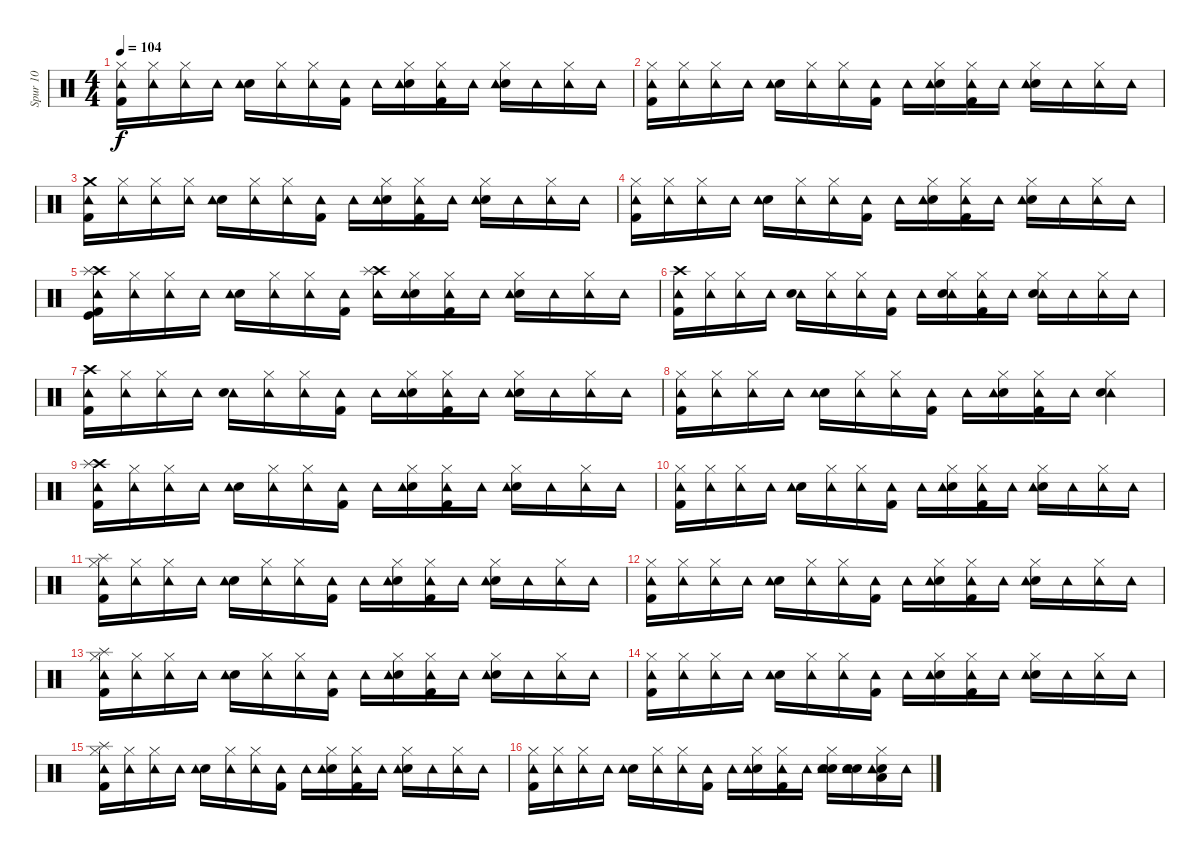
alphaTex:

\track ("Spur 10" "Spur 10") {instrument percussion}
\staff {score}
\articulation defaults
\ts (4 4)
\tempo 104
\clef neutral
\ks c
("Hi-Hat (closed)" "Kick (hit) 2" "Tambourine (hit)").16{dy f} ("Hi-Hat (closed)" "Tambourine (hit)").16 ("Hi-Hat (closed)" "Tambourine (hit)").16 "Tambourine (hit)".16 ("Electric Snare (hit)" "Tambourine (hit)").16 ("Hi-Hat (closed)" "Tambourine (hit)").16 ("Hi-Hat (closed)" "Tambourine (hit)").16 ("Kick (hit) 2" "Tambourine (hit)").16 "Tambourine (hit)".16 ("Hi-Hat (closed)" "Electric Snare (hit)" "Tambourine (hit)").16 ("Hi-Hat (closed)" "Kick (hit) 2" "Tambourine (hit)").16 "Tambourine (hit)".16 ("Hi-Hat (closed)" "Electric Snare (hit)" "Tambourine (hit)").16 "Tambourine (hit)".16 ("Hi-Hat (closed)" "Tambourine (hit)").16 "Tambourine (hit)".16 |
("Hi-Hat (closed)" "Kick (hit) 2" "Tambourine (hit)").16 ("Hi-Hat (closed)" "Tambourine (hit)").16 ("Hi-Hat (closed)" "Tambourine (hit)").16 "Tambourine (hit)".16 ("Electric Snare (hit)" "Tambourine (hit)").16 ("Hi-Hat (closed)" "Tambourine (hit)").16 ("Hi-Hat (closed)" "Tambourine (hit)").16 ("Kick (hit) 2" "Tambourine (hit)").16 "Tambourine (hit)".16 ("Hi-Hat (closed)" "Electric Snare (hit)" "Tambourine (hit)").16 ("Hi-Hat (closed)" "Kick (hit) 2" "Tambourine (hit)").16 "Tambourine (hit)".16 ("Electric Snare (hit)" "Hi-Hat (closed)" "Tambourine (hit)").16 "Tambourine (hit)".16 ("Hi-Hat (closed)" "Tambourine (hit)").16 "Tambourine (hit)".16 |
("Kick (hit) 2" "Tambourine (hit)" "Crash medium (hit)").16 ("Hi-Hat (closed)" "Tambourine (hit)").16 ("Hi-Hat (closed)" "Tambourine (hit)").16 ("Hi-Hat (closed)" "Tambourine (hit)").16 ("Electric Snare (hit)" "Tambourine (hit)").16 ("Hi-Hat (closed)" "Tambourine (hit)").16 ("Hi-Hat (closed)" "Tambourine (hit)").16 ("Kick (hit) 2" "Tambourine (hit)").16 "Tambourine (hit)".16 ("Hi-Hat (closed)" "Electric Snare (hit)" "Tambourine (hit)").16 ("Hi-Hat (closed)" "Kick (hit) 2" "Tambourine (hit)").16 "Tambourine (hit)".16 ("Hi-Hat (closed)" "Electric Snare (hit)" "Tambourine (hit)").16 "Tambourine (hit)".16 ("Hi-Hat (closed)" "Tambourine (hit)").16 "Tambourine (hit)".16 |
("Hi-Hat (closed)" "Tambourine (hit)" "Kick (hit) 2").16 ("Hi-Hat (closed)" "Tambourine (hit)").16 ("Hi-Hat (closed)" "Tambourine (hit)").16 "Tambourine (hit)".16 ("Electric Snare (hit)" "Tambourine (hit)").16 ("Hi-Hat (closed)" "Tambourine (hit)").16 ("Hi-Hat (closed)" "Tambourine (hit)").16 ("Kick (hit) 2" "Tambourine (hit)").16 "Tambourine (hit)".16 ("Hi-Hat (closed)" "Electric Snare (hit)" "Tambourine (hit)").16 ("Kick (hit) 2" "Hi-Hat (closed)" "Tambourine (hit)").16 "Tambourine (hit)".16 ("Hi-Hat (closed)" "Electric Snare (hit)" "Tambourine (hit)").16 "Tambourine (hit)".16 ("Hi-Hat (closed)" "Tambourine (hit)").16 "Tambourine (hit)".16 |
("Kick (hit)" "Crash high (hit)" "Tambourine (hit)" "Kick (hit) 2" "Splash (hit)").16 ("Hi-Hat (closed)" "Tambourine (hit)").16 ("Hi-Hat (closed)" "Tambourine (hit)").16 "Tambourine (hit)".16 ("Electric Snare (hit)" "Tambourine (hit)").16 ("Hi-Hat (closed)" "Tambourine (hit)").16 ("Hi-Hat (closed)" "Tambourine (hit)").16 ("Kick (hit) 2" "Tambourine (hit)").16 ("Crash high (hit)" "Tambourine (hit)" "Splash (hit)").16 ("Hi-Hat (closed)" "Electric Snare (hit)" "Tambourine (hit)").16 ("Hi-Hat (closed)" "Kick (hit) 2" "Tambourine (hit)").16 "Tambourine (hit)".16 ("Hi-Hat (closed)" "Electric Snare (hit)" "Tambourine (hit)").16 "Tambourine (hit)".16 ("Hi-Hat (closed)" "Tambourine (hit)").16 "Tambourine (hit)".16 |
("Tambourine (hit)" "Kick (hit) 2" "Crash high (hit)").16 ("Hi-Hat (closed)" "Tambourine (hit)").16 ("Hi-Hat (closed)" "Tambourine (hit)").16 "Tambourine (hit)".16 ("Tambourine (hit)" "Electric Snare (hit)").16 ("Hi-Hat (closed)" "Tambourine (hit)").16 ("Hi-Hat (closed)" "Tambourine (hit)").16 ("Tambourine (hit)" "Kick (hit) 2").16 "Tambourine (hit)".16 ("Hi-Hat (closed)" "Tambourine (hit)" "Electric Snare (hit)").16 ("Hi-Hat (closed)" "Tambourine (hit)" "Kick (hit) 2").16 "Tambourine (hit)".16 ("Hi-Hat (closed)" "Tambourine (hit)" "Electric Snare (hit)").16 "Tambourine (hit)".16 ("Hi-Hat (closed)" "Tambourine (hit)").16 "Tambourine (hit)".16 |
("Tambourine (hit)" "Kick (hit) 2" "Crash high (hit)").16 ("Hi-Hat (closed)" "Tambourine (hit)").16 ("Hi-Hat (closed)" "Tambourine (hit)").16 "Tambourine (hit)".16 ("Tambourine (hit)" "Electric Snare (hit)").16 ("Hi-Hat (closed)" "Tambourine (hit)").16 ("Hi-Hat (closed)" "Tambourine (hit)").16 ("Kick (hit) 2" "Tambourine (hit)").16 "Tambourine (hit)".16 ("Hi-Hat (closed)" "Electric Snare (hit)" "Tambourine (hit)").16 ("Kick (hit) 2" "Hi-Hat (closed)" "Tambourine (hit)").16 "Tambourine (hit)".16 ("Electric Snare (hit)" "Hi-Hat (closed)" "Tambourine (hit)").16 "Tambourine (hit)".16 ("Hi-Hat (closed)" "Tambourine (hit)").16 "Tambourine (hit)".16 |
("Hi-Hat (closed)" "Kick (hit) 2" "Tambourine (hit)").16 ("Hi-Hat (closed)" "Tambourine (hit)").16 ("Hi-Hat (closed)" "Tambourine (hit)").16 "Tambourine (hit)".16 ("Electric Snare (hit)" "Tambourine (hit)").16 ("Hi-Hat (closed)" "Tambourine (hit)").16 ("Hi-Hat (closed)" "Tambourine (hit)").16 ("Kick (hit) 2" "Tambourine (hit)").16 "Tambourine (hit)".16 ("Hi-Hat (closed)" "Electric Snare (hit)" "Tambourine (hit)").16 ("Hi-Hat (closed)" "Kick (hit) 2" "Tambourine (hit)").16 "Tambourine (hit)".16 ("Hi-Hat (closed)" "Tambourine (hit)" "Electric Snare (hit)").4 |
("Kick (hit) 2" "Tambourine (hit)" "Crash high (hit)" "Splash (hit)").16 ("Hi-Hat (closed)" "Tambourine (hit)").16 ("Hi-Hat (closed)" "Tambourine (hit)").16 "Tambourine (hit)".16 ("Electric Snare (hit)" "Tambourine (hit)").16 ("Hi-Hat (closed)" "Tambourine (hit)").16 ("Hi-Hat (closed)" "Tambourine (hit)").16 ("Kick (hit) 2" "Tambourine (hit)").16 "Tambourine (hit)".16 ("Hi-Hat (closed)" "Electric Snare (hit)" "Tambourine (hit)").16 ("Hi-Hat (closed)" "Kick (hit) 2" "Tambourine (hit)").16 "Tambourine (hit)".16 ("Hi-Hat (closed)" "Electric Snare (hit)" "Tambourine (hit)").16 "Tambourine (hit)".16 ("Hi-Hat (closed)" "Tambourine (hit)").16 "Tambourine (hit)".16 |
("Hi-Hat (closed)" "Tambourine (hit)" "Kick (hit) 2").16 ("Hi-Hat (closed)" "Tambourine (hit)").16 ("Hi-Hat (closed)" "Tambourine (hit)").16 "Tambourine (hit)".16 ("Electric Snare (hit)" "Tambourine (hit)").16 ("Hi-Hat (closed)" "Tambourine (hit)").16 ("Hi-Hat (closed)" "Tambourine (hit)").16 ("Kick (hit) 2" "Tambourine (hit)").16 "Tambourine (hit)".16 ("Hi-Hat (closed)" "Electric Snare (hit)" "Tambourine (hit)").16 ("Hi-Hat (closed)" "Kick (hit) 2" "Tambourine (hit)").16 "Tambourine (hit)".16 ("Hi-Hat (closed)" "Electric Snare (hit)" "Tambourine (hit)").16 "Tambourine (hit)".16 ("Hi-Hat (closed)" "Tambourine (hit)").16 "Tambourine (hit)".16 |
("Splash (hit)" "Hi-Hat (closed)" "Tambourine (hit)" "Kick (hit) 2").16 ("Hi-Hat (closed)" "Tambourine (hit)").16 ("Hi-Hat (closed)" "Tambourine (hit)").16 "Tambourine (hit)".16 ("Electric Snare (hit)" "Tambourine (hit)").16 ("Hi-Hat (closed)" "Tambourine (hit)").16 ("Hi-Hat (closed)" "Tambourine (hit)").16 ("Kick (hit) 2" "Tambourine (hit)").16 "Tambourine (hit)".16 ("Hi-Hat (closed)" "Electric Snare (hit)" "Tambourine (hit)").16 ("Kick (hit) 2" "Hi-Hat (closed)" "Tambourine (hit)").16 "Tambourine (hit)".16 ("Hi-Hat (closed)" "Electric Snare (hit)" "Tambourine (hit)").16 "Tambourine (hit)".16 ("Hi-Hat (closed)" "Tambourine (hit)").16 "Tambourine (hit)".16 |
("Hi-Hat (closed)" "Tambourine (hit)" "Kick (hit) 2").16 ("Hi-Hat (closed)" "Tambourine (hit)").16 ("Hi-Hat (closed)" "Tambourine (hit)").16 "Tambourine (hit)".16 ("Electric Snare (hit)" "Tambourine (hit)").16 ("Hi-Hat (closed)" "Tambourine (hit)").16 ("Hi-Hat (closed)" "Tambourine (hit)").16 ("Kick (hit) 2" "Tambourine (hit)").16 "Tambourine (hit)".16 ("Hi-Hat (closed)" "Electric Snare (hit)" "Tambourine (hit)").16 ("Kick (hit) 2" "Hi-Hat (closed)" "Tambourine (hit)").16 "Tambourine (hit)".16 ("Electric Snare (hit)" "Hi-Hat (closed)" "Tambourine (hit)").16 "Tambourine (hit)".16 ("Hi-Hat (closed)" "Tambourine (hit)").16 "Tambourine (hit)".16 |
("Splash (hit)" "Kick (hit) 2" "Hi-Hat (closed)" "Tambourine (hit)").16 ("Hi-Hat (closed)" "Tambourine (hit)").16 ("Hi-Hat (closed)" "Tambourine (hit)").16 "Tambourine (hit)".16 ("Electric Snare (hit)" "Tambourine (hit)").16 ("Hi-Hat (closed)" "Tambourine (hit)").16 ("Hi-Hat (closed)" "Tambourine (hit)").16 ("Kick (hit) 2" "Tambourine (hit)").16 "Tambourine (hit)".16 ("Hi-Hat (closed)" "Electric Snare (hit)" "Tambourine (hit)").16 ("Hi-Hat (closed)" "Kick (hit) 2" "Tambourine (hit)").16 "Tambourine (hit)".16 ("Electric Snare (hit)" "Hi-Hat (closed)" "Tambourine (hit)").16 "Tambourine (hit)".16 ("Hi-Hat (closed)" "Tambourine (hit)").16 "Tambourine (hit)".16 |
("Hi-Hat (closed)" "Kick (hit) 2" "Tambourine (hit)").16 ("Hi-Hat (closed)" "Tambourine (hit)").16 ("Hi-Hat (closed)" "Tambourine (hit)").16 "Tambourine (hit)".16 ("Electric Snare (hit)" "Tambourine (hit)").16 ("Hi-Hat (closed)" "Tambourine (hit)").16 ("Hi-Hat (closed)" "Tambourine (hit)").16 ("Kick (hit) 2" "Tambourine (hit)").16 "Tambourine (hit)".16 ("Hi-Hat (closed)" "Electric Snare (hit)" "Tambourine (hit)").16 ("Hi-Hat (closed)" "Kick (hit) 2" "Tambourine (hit)").16 "Tambourine (hit)".16 ("Hi-Hat (closed)" "Electric Snare (hit)" "Tambourine (hit)").16 "Tambourine (hit)".16 ("Hi-Hat (closed)" "Tambourine (hit)").16 "Tambourine (hit)".16 |
("Splash (hit)" "Hi-Hat (closed)" "Kick (hit) 2" "Tambourine (hit)").16 ("Hi-Hat (closed)" "Tambourine (hit)").16 ("Hi-Hat (closed)" "Tambourine (hit)").16 "Tambourine (hit)".16 ("Electric Snare (hit)" "Tambourine (hit)").16 ("Hi-Hat (closed)" "Tambourine (hit)").16 ("Hi-Hat (closed)" "Tambourine (hit)").16 ("Kick (hit) 2" "Tambourine (hit)").16 "Tambourine (hit)".16 ("Hi-Hat (closed)" "Electric Snare (hit)" "Tambourine (hit)").16 ("Hi-Hat (closed)" "Kick (hit) 2" "Tambourine (hit)").16 "Tambourine (hit)".16 ("Hi-Hat (closed)" "Electric Snare (hit)" "Tambourine (hit)").16 "Tambourine (hit)".16 ("Hi-Hat (closed)" "Tambourine (hit)").16 "Tambourine (hit)".16 |
("Hi-Hat (closed)" "Kick (hit) 2" "Tambourine (hit)").16 ("Hi-Hat (closed)" "Tambourine (hit)").16 ("Hi-Hat (closed)" "Tambourine (hit)").16 "Tambourine (hit)".16 ("Electric Snare (hit)" "Tambourine (hit)").16 ("Hi-Hat (closed)" "Tambourine (hit)").16 ("Hi-Hat (closed)" "Tambourine (hit)").16 ("Kick (hit) 2" "Tambourine (hit)").16 "Tambourine (hit)".16 ("Hi-Hat (closed)" "Electric Snare (hit)" "Tambourine (hit)").16 ("Hi-Hat (closed)" "Kick (hit) 2" "Tambourine (hit)").16 "Tambourine (hit)".16 ("Electric Snare (hit)" "Hi-Hat (closed)" "Snare (hit) 2" "Tambourine (hit)").16 ("Electric Snare (hit)" "Snare (hit) 2" "Tambourine (hit)").16 ("Electric Snare (hit)" "Low Tom (hit)" "Hi-Hat (closed)" "Tambourine (hit)").16 "Tambourine (hit)".16
